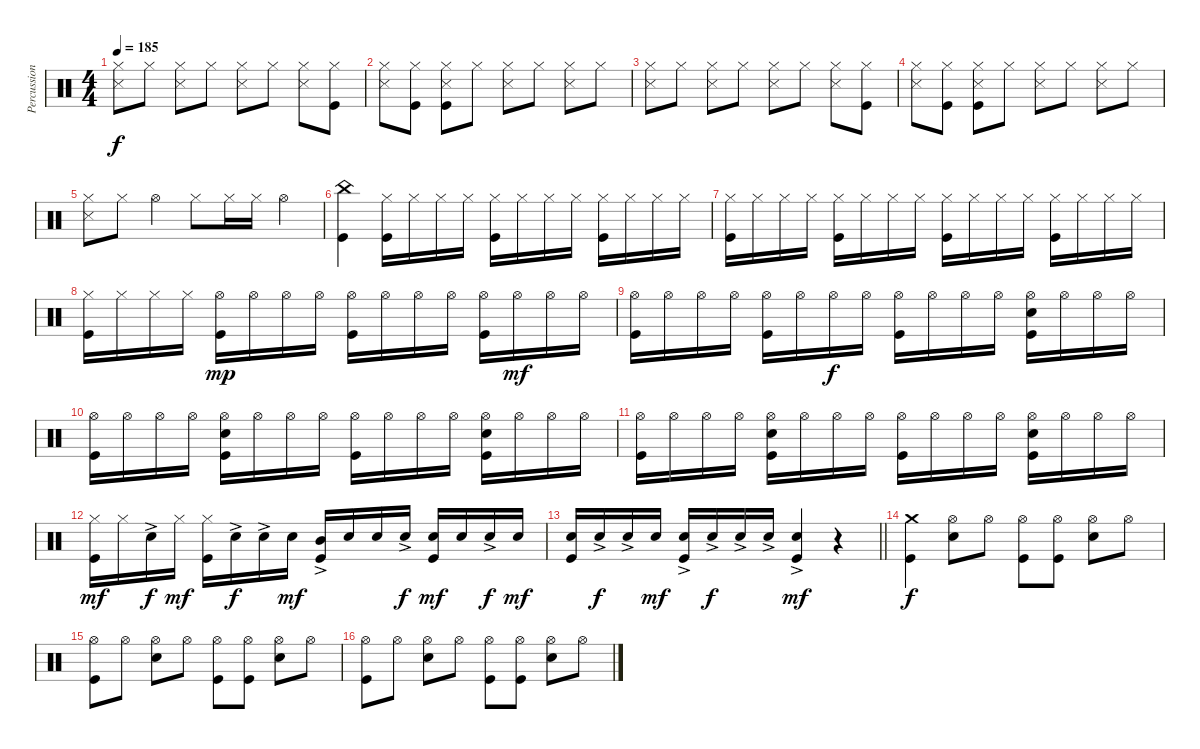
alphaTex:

\track ("Percussion" "Percussion") {instrument percussion}
\staff {score}
\articulation defaults
\ts (4 4)
\tempo 185
\clef neutral
\ks c
("Hi-Hat (closed)" "Snare (side stick) 3").8{dy f} "Hi-Hat (closed)".8 ("Hi-Hat (closed)" "Snare (side stick) 3").8 "Hi-Hat (closed)".8 ("Hi-Hat (closed)" "Snare (side stick) 3").8 "Hi-Hat (closed)".8 ("Hi-Hat (closed)" "Snare (side stick) 3").8 ("Hi-Hat (closed)" "Kick (hit)").8 |
("Hi-Hat (closed)" "Snare (side stick) 3").8 ("Hi-Hat (closed)" "Kick (hit)").8 ("Hi-Hat (closed)" "Snare (side stick) 3" "Kick (hit)").8 "Hi-Hat (closed)".8 ("Hi-Hat (closed)" "Snare (side stick) 3").8 "Hi-Hat (closed)".8 ("Hi-Hat (closed)" "Snare (side stick) 3").8 "Hi-Hat (closed)".8 |
("Hi-Hat (closed)" "Snare (side stick) 3").8 "Hi-Hat (closed)".8 ("Hi-Hat (closed)" "Snare (side stick) 3").8 "Hi-Hat (closed)".8 ("Hi-Hat (closed)" "Snare (side stick) 3").8 "Hi-Hat (closed)".8 ("Hi-Hat (closed)" "Snare (side stick) 3").8 ("Hi-Hat (closed)" "Kick (hit)").8 |
("Hi-Hat (closed)" "Snare (side stick) 3").8 ("Hi-Hat (closed)" "Kick (hit)").8 ("Hi-Hat (closed)" "Snare (side stick) 3" "Kick (hit)").8 "Hi-Hat (closed)".8 ("Hi-Hat (closed)" "Snare (side stick) 3").8 "Hi-Hat (closed)".8 ("Hi-Hat (closed)" "Snare (side stick) 3").8 "Hi-Hat (closed)".8 |
("Hi-Hat (closed)" "Snare (side stick) 3").8 "Hi-Hat (closed)".8 "Hi-Hat (open)".4 "Hi-Hat (closed)".8 "Hi-Hat (closed)".16 "Hi-Hat (closed)".16 "Hi-Hat (open)".4 |
("China (hit)" "Kick (hit)").4 ("Hi-Hat (closed)" "Kick (hit)").16 "Hi-Hat (closed)".16 "Hi-Hat (closed)".16 "Hi-Hat (closed)".16 ("Hi-Hat (closed)" "Kick (hit)").16 "Hi-Hat (closed)".16 "Hi-Hat (closed)".16 "Hi-Hat (closed)".16 ("Hi-Hat (closed)" "Kick (hit)").16 "Hi-Hat (closed)".16 "Hi-Hat (closed)".16 "Hi-Hat (closed)".16 |
("Hi-Hat (closed)" "Kick (hit)").16 "Hi-Hat (closed)".16 "Hi-Hat (closed)".16 "Hi-Hat (closed)".16 ("Hi-Hat (closed)" "Kick (hit)").16 "Hi-Hat (closed)".16 "Hi-Hat (closed)".16 "Hi-Hat (closed)".16 ("Hi-Hat (closed)" "Kick (hit)").16 "Hi-Hat (closed)".16 "Hi-Hat (closed)".16 "Hi-Hat (closed)".16 ("Hi-Hat (closed)" "Kick (hit)").16 "Hi-Hat (closed)".16 "Hi-Hat (closed)".16 "Hi-Hat (closed)".16 |
("Hi-Hat (closed)" "Kick (hit)").16 "Hi-Hat (closed)".16 "Hi-Hat (closed)".16 "Hi-Hat (closed)".16 ("Hi-Hat (open)" "Kick (hit)").16{dy mp} "Hi-Hat (open)".16 "Hi-Hat (open)".16 "Hi-Hat (open)".16 ("Hi-Hat (open)" "Kick (hit)").16 "Hi-Hat (open)".16 "Hi-Hat (open)".16 "Hi-Hat (open)".16 ("Hi-Hat (open)" "Kick (hit)").16 "Hi-Hat (open)".16{dy mf} "Hi-Hat (open)".16 "Hi-Hat (open)".16 |
("Hi-Hat (open)" "Kick (hit)").16 "Hi-Hat (open)".16 "Hi-Hat (open)".16 "Hi-Hat (open)".16 ("Hi-Hat (open)" "Kick (hit)").16 "Hi-Hat (open)".16 "Hi-Hat (open)".16{dy f} "Hi-Hat (open)".16 ("Hi-Hat (open)" "Kick (hit)").16 "Hi-Hat (open)".16 "Hi-Hat (open)".16 "Hi-Hat (open)".16 ("Hi-Hat (open)" "Electric Snare (hit)" "Kick (hit)").16 "Hi-Hat (open)".16 "Hi-Hat (open)".16 "Hi-Hat (open)".16 |
("Hi-Hat (open)" "Kick (hit)").16 "Hi-Hat (open)".16 "Hi-Hat (open)".16 "Hi-Hat (open)".16 ("Hi-Hat (open)" "Electric Snare (hit)" "Kick (hit)").16 "Hi-Hat (open)".16 "Hi-Hat (open)".16 "Hi-Hat (open)".16 ("Hi-Hat (open)" "Kick (hit)").16 "Hi-Hat (open)".16 "Hi-Hat (open)".16 "Hi-Hat (open)".16 ("Hi-Hat (open)" "Electric Snare (hit)" "Kick (hit)").16 "Hi-Hat (open)".16 "Hi-Hat (open)".16 "Hi-Hat (open)".16 |
("Hi-Hat (open)" "Kick (hit)").16 "Hi-Hat (open)".16 "Hi-Hat (open)".16 "Hi-Hat (open)".16 ("Hi-Hat (open)" "Electric Snare (hit)" "Kick (hit)").16 "Hi-Hat (open)".16 "Hi-Hat (open)".16 "Hi-Hat (open)".16 ("Hi-Hat (open)" "Kick (hit)").16 "Hi-Hat (open)".16 "Hi-Hat (open)".16 "Hi-Hat (open)".16 ("Hi-Hat (open)" "Electric Snare (hit)" "Kick (hit)").16 "Hi-Hat (open)".16 "Hi-Hat (open)".16 "Hi-Hat (open)".16 |
("Hi-Hat (closed)" "Kick (hit)").16{dy mf} "Hi-Hat (closed)".16 "Electric Snare (hit)"{ac}.16{dy f} "Hi-Hat (closed)".16{dy mf} ("Hi-Hat (closed)" "Kick (hit)").16 "Electric Snare (hit)"{ac}.16{dy f} "Electric Snare (hit)"{ac}.16 "Electric Snare (hit)".16{dy mf} ("Mid Tom (hit)"{ac} "Kick (hit)").16 "Electric Snare (hit)".16 "Electric Snare (hit)".16 "Electric Snare (hit)"{ac}.16{dy f} ("Electric Snare (hit)" "Kick (hit)").16{dy mf} "Electric Snare (hit)".16 "Electric Snare (hit)"{ac}.16{dy f} "Electric Snare (hit)".16{dy mf} |
\barLineRight lightlight
("Electric Snare (hit)" "Kick (hit)").16 "Electric Snare (hit)"{ac}.16{dy f} "Electric Snare (hit)"{ac}.16 "Electric Snare (hit)".16{dy mf} ("Electric Snare (hit)"{ac} "Kick (hit)").16 "Electric Snare (hit)"{ac}.16{dy f} "Electric Snare (hit)"{ac}.16 "Electric Snare (hit)"{ac}.16 ("Electric Snare (hit)"{ac} "Kick (hit)").4{dy mf} r.4 |
("Crash medium (hit)" "Kick (hit)").4{dy f} ("Hi-Hat (open)" "Electric Snare (hit)").8 "Hi-Hat (open)".8 ("Hi-Hat (open)" "Kick (hit)").8 ("Hi-Hat (open)" "Kick (hit)").8 ("Hi-Hat (open)" "Electric Snare (hit)").8 "Hi-Hat (open)".8 |
("Hi-Hat (open)" "Kick (hit)").8 "Hi-Hat (open)".8 ("Hi-Hat (open)" "Electric Snare (hit)").8 "Hi-Hat (open)".8 ("Hi-Hat (open)" "Kick (hit)").8 ("Hi-Hat (open)" "Kick (hit)").8 ("Hi-Hat (open)" "Electric Snare (hit)").8 "Hi-Hat (open)".8 |
("Hi-Hat (open)" "Kick (hit)").8 "Hi-Hat (open)".8 ("Hi-Hat (open)" "Electric Snare (hit)").8 "Hi-Hat (open)".8 ("Hi-Hat (open)" "Kick (hit)").8 ("Hi-Hat (open)" "Kick (hit)").8 ("Hi-Hat (open)" "Electric Snare (hit)").8 "Hi-Hat (open)".8
